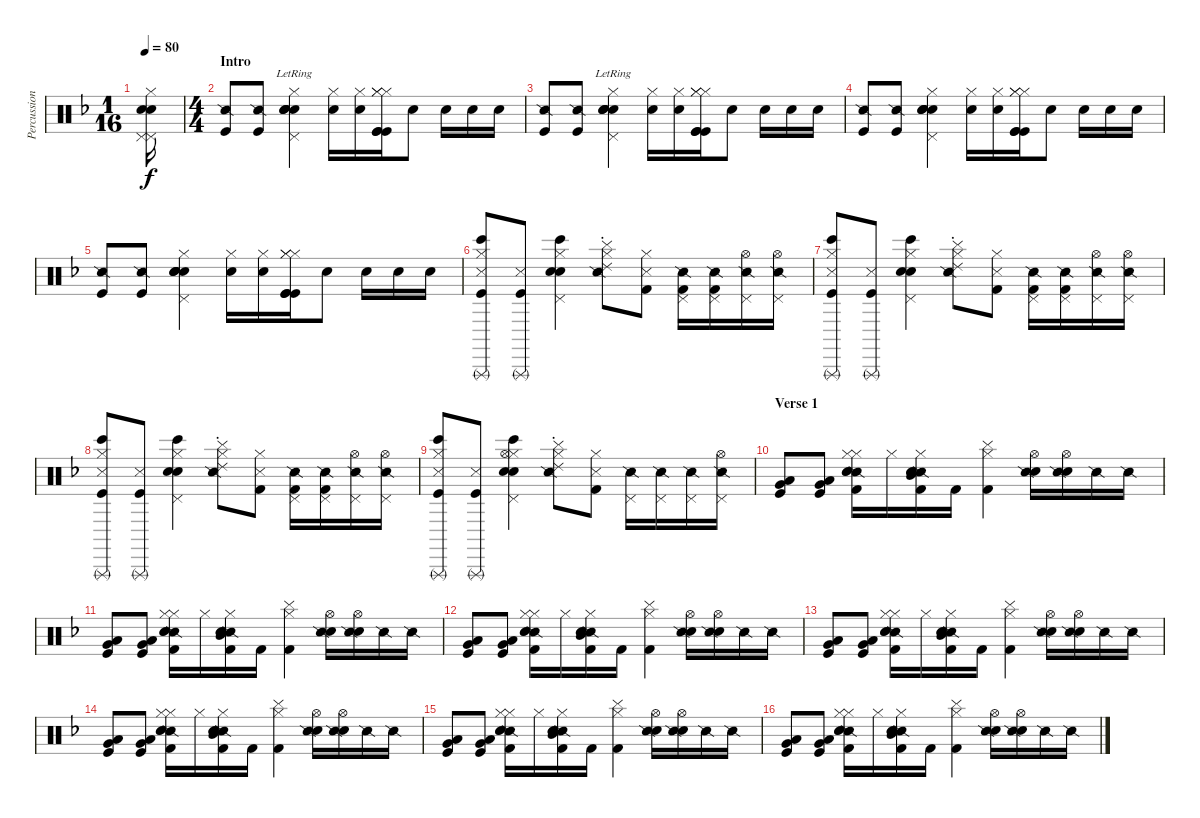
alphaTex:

\track ("Percussion" "Percussion") {instrument percussion}
\staff {score}
\articulation defaults
\ts (1 16)
\tempo 80
\clef neutral
\ks dminor
("Hi-Hat (closed)" "Pedal Hi-Hat (hit)" "Pedal Hi-Hat (hit)" "Hand Clap (hit)" "Hand Clap (hit)").16{dy f} |
\ts (4 4)
\section ("" "Intro")
("Kick (hit)" "Snare (side stick) 2").8 ("Kick (hit)" "Snare (side stick) 2").8 ("Snare (hit) 2"{lr} "Snare (hit) 2"{lr} "Pedal Hi-Hat (hit)"{lr} "Hi-Hat (closed)"{lr} "Electric Snare (hit)"{lr} "Hand Clap (hit)"{lr}).4 ("Hi-Hat (closed)" "Electric Snare (hit)").16 ("Hi-Hat (closed)" "Electric Snare (hit)").16 ("Hi-Hat (closed)" "Hi-Hat (closed)" "Hi-Hat (closed)" "Kick (hit)" "Kick (hit)" "Kick (hit)").16 "Hand Clap (hit)".8 "Snare (hit) 2".16 "Snare (hit) 2".16 "Snare (hit) 2".16 |
("Kick (hit)" "Snare (side stick) 2").8 ("Kick (hit)" "Snare (side stick) 2").8 ("Snare (hit) 2"{lr} "Snare (hit) 2"{lr} "Pedal Hi-Hat (hit)"{lr} "Hi-Hat (closed)"{lr} "Electric Snare (hit)"{lr} "Hand Clap (hit)"{lr}).4 ("Hi-Hat (closed)" "Electric Snare (hit)").16 ("Hi-Hat (closed)" "Electric Snare (hit)").16 ("Hi-Hat (closed)" "Hi-Hat (closed)" "Hi-Hat (closed)" "Kick (hit)" "Kick (hit)" "Kick (hit)").16 "Hand Clap (hit)".8 "Snare (hit) 2".16 "Snare (hit) 2".16 "Snare (hit) 2".16 |
("Kick (hit)" "Snare (side stick) 2").8 ("Kick (hit)" "Snare (side stick) 2").8 ("Snare (hit) 2" "Snare (hit) 2" "Pedal Hi-Hat (hit)" "Hi-Hat (closed)" "Electric Snare (hit)" "Hand Clap (hit)").4 ("Hi-Hat (closed)" "Electric Snare (hit)").16 ("Hi-Hat (closed)" "Electric Snare (hit)").16 ("Hi-Hat (closed)" "Hi-Hat (closed)" "Hi-Hat (closed)" "Kick (hit)" "Kick (hit)" "Kick (hit)").16 "Hand Clap (hit)".8 "Snare (hit) 2".16 "Snare (hit) 2".16 "Snare (hit) 2".16 |
("Kick (hit)" "Snare (side stick) 2").8 ("Kick (hit)" "Snare (side stick) 2").8 ("Snare (hit) 2" "Snare (hit) 2" "Pedal Hi-Hat (hit)" "Hi-Hat (closed)" "Electric Snare (hit)" "Hand Clap (hit)").4 ("Hi-Hat (closed)" "Electric Snare (hit)").16 ("Hi-Hat (closed)" "Electric Snare (hit)").16 ("Hi-Hat (closed)" "Hi-Hat (closed)" "Hi-Hat (closed)" "Kick (hit)" "Kick (hit)" "Kick (hit)").16 "Hand Clap (hit)".8 "Snare (hit) 2".16 "Snare (hit) 2".16 "Snare (hit) 2".16 |
("Kick (hit)" "Snare (side stick) 3" "Triangle (rnute)" "Hi-Hat (closed)" "Bongo High (hit)").8 ("Kick (hit)" "Snare (side stick) 3" "Triangle (rnute)").8 ("Snare (hit) 2" "Electric Snare (hit)" "Hi-Hat (closed)" "Pedal Hi-Hat (hit)" "Bongo High (hit)").4 ("Hi-Hat (closed)" "Ride (choke) 2" "Cymbal (hit)" "Snare (side stick) 2").8 ("Snare (side stick) 3" "Hi-Hat (closed)" "Kick (hit) 2").8 ("Kick (hit) 2" "Pedal Hi-Hat (hit)" "Snare (side stick) 2").16 ("Kick (hit) 2" "Pedal Hi-Hat (hit)" "Snare (side stick) 2").16 ("Hi-Hat (open)" "Pedal Hi-Hat (hit)" "Snare (side stick) 2").16 ("Hi-Hat (open)" "Pedal Hi-Hat (hit)" "Snare (side stick) 2").16 |
("Kick (hit)" "Snare (side stick) 3" "Triangle (rnute)" "Hi-Hat (closed)" "Bongo High (hit)").8 ("Kick (hit)" "Snare (side stick) 3" "Triangle (rnute)").8 ("Snare (hit) 2" "Electric Snare (hit)" "Hi-Hat (closed)" "Pedal Hi-Hat (hit)" "Bongo High (hit)").4 ("Hi-Hat (closed)" "Ride (choke) 2" "Cymbal (hit)" "Snare (side stick) 2").8 ("Snare (side stick) 3" "Hi-Hat (closed)" "Kick (hit) 2").8 ("Kick (hit) 2" "Pedal Hi-Hat (hit)" "Snare (side stick) 2").16 ("Kick (hit) 2" "Pedal Hi-Hat (hit)" "Snare (side stick) 2").16 ("Hi-Hat (open)" "Pedal Hi-Hat (hit)" "Snare (side stick) 2").16 ("Hi-Hat (open)" "Pedal Hi-Hat (hit)" "Snare (side stick) 2").16 |
("Kick (hit)" "Snare (side stick) 3" "Triangle (rnute)" "Hi-Hat (closed)" "Bongo High (hit)").8 ("Kick (hit)" "Snare (side stick) 3" "Triangle (rnute)").8 ("Snare (hit) 2" "Electric Snare (hit)" "Hi-Hat (closed)" "Pedal Hi-Hat (hit)" "Bongo High (hit)").4 ("Hi-Hat (closed)" "Ride (choke) 2" "Cymbal (hit)" "Snare (side stick) 2").8 ("Snare (side stick) 3" "Hi-Hat (closed)" "Kick (hit) 2").8 ("Kick (hit) 2" "Pedal Hi-Hat (hit)" "Snare (side stick) 2").16 ("Kick (hit) 2" "Pedal Hi-Hat (hit)" "Snare (side stick) 2").16 ("Hi-Hat (open)" "Pedal Hi-Hat (hit)" "Snare (side stick) 2").16 ("Hi-Hat (open)" "Pedal Hi-Hat (hit)" "Snare (side stick) 2").16 |
("Kick (hit)" "Snare (side stick) 3" "Triangle (rnute)" "Hi-Hat (closed)" "Bongo High (hit)").8 ("Kick (hit)" "Snare (side stick) 3" "Triangle (rnute)").8 ("Snare (hit) 2" "Electric Snare (hit)" "Hi-Hat (closed)" "Pedal Hi-Hat (hit)" "Bongo High (hit)" "Hi-Hat (open)").4 ("Hi-Hat (closed)" "Ride (choke) 2" "Cymbal (hit)" "Snare (side stick) 2").8 ("Snare (side stick) 3" "Hi-Hat (closed)" "Kick (hit) 2").8 ("Pedal Hi-Hat (hit)" "Snare (side stick) 2").16 ("Pedal Hi-Hat (hit)" "Snare (side stick) 2").16 ("Pedal Hi-Hat (hit)" "Snare (side stick) 2").16 ("Pedal Hi-Hat (hit)" "Snare (side stick) 2" "Hi-Hat (open)").16 |
\section ("" "Verse 1")
("Kick (hit)" "Low Floor Tom (hit)" "Very Low Tom (hit)").8 ("Kick (hit)" "Low Floor Tom (hit)" "Very Low Tom (hit)").8 ("Kick (hit) 2" "Hi-Hat (closed)" "Snare (side stick) 2" "Snare (hit) 2" "Electric Snare (hit)" "Hi-Hat (closed)").16 "Hi-Hat (closed)".16 ("Kick (hit) 2" "Hi-Hat (closed)" "Snare (side stick) 2" "Snare (hit) 2" "Electric Snare (hit)" "Mid Tom (hit)").16 "Kick (hit) 2".16 ("Kick (hit) 2" "Hi-Hat (closed)" "Cymbal (hit)").4 ("Electric Snare (hit)" "Hi-Hat (open)" "Snare (side stick) 2").16 ("Electric Snare (hit)" "Hi-Hat (open)" "Snare (side stick) 2").16 "Snare (side stick) 2".16 "Snare (side stick) 2".16 |
("Kick (hit)" "Low Floor Tom (hit)" "Very Low Tom (hit)").8 ("Kick (hit)" "Low Floor Tom (hit)" "Very Low Tom (hit)").8 ("Kick (hit) 2" "Hi-Hat (closed)" "Snare (side stick) 2" "Snare (hit) 2" "Electric Snare (hit)" "Hi-Hat (closed)").16 "Hi-Hat (closed)".16 ("Kick (hit) 2" "Hi-Hat (closed)" "Snare (side stick) 2" "Snare (hit) 2" "Electric Snare (hit)" "Mid Tom (hit)").16 "Kick (hit) 2".16 ("Kick (hit) 2" "Hi-Hat (closed)" "Cymbal (hit)").4 ("Electric Snare (hit)" "Hi-Hat (open)" "Snare (side stick) 2").16 ("Electric Snare (hit)" "Hi-Hat (open)" "Snare (side stick) 2").16 "Snare (side stick) 2".16 "Snare (side stick) 2".16 |
("Kick (hit)" "Low Floor Tom (hit)" "Very Low Tom (hit)").8 ("Kick (hit)" "Low Floor Tom (hit)" "Very Low Tom (hit)").8 ("Kick (hit) 2" "Hi-Hat (closed)" "Snare (side stick) 2" "Snare (hit) 2" "Electric Snare (hit)" "Hi-Hat (closed)").16 "Hi-Hat (closed)".16 ("Kick (hit) 2" "Hi-Hat (closed)" "Snare (side stick) 2" "Snare (hit) 2" "Electric Snare (hit)" "Mid Tom (hit)").16 "Kick (hit) 2".16 ("Kick (hit) 2" "Hi-Hat (closed)" "Cymbal (hit)").4 ("Electric Snare (hit)" "Hi-Hat (open)" "Snare (side stick) 2").16 ("Electric Snare (hit)" "Hi-Hat (open)" "Snare (side stick) 2").16 "Snare (side stick) 2".16 "Snare (side stick) 2".16 |
("Kick (hit)" "Low Floor Tom (hit)" "Very Low Tom (hit)").8 ("Kick (hit)" "Low Floor Tom (hit)" "Very Low Tom (hit)").8 ("Kick (hit) 2" "Hi-Hat (closed)" "Snare (side stick) 2" "Snare (hit) 2" "Electric Snare (hit)" "Hi-Hat (closed)").16 "Hi-Hat (closed)".16 ("Kick (hit) 2" "Hi-Hat (closed)" "Snare (side stick) 2" "Snare (hit) 2" "Electric Snare (hit)" "Mid Tom (hit)").16 "Kick (hit) 2".16 ("Kick (hit) 2" "Hi-Hat (closed)" "Cymbal (hit)").4 ("Electric Snare (hit)" "Hi-Hat (open)" "Snare (side stick) 2").16 ("Electric Snare (hit)" "Hi-Hat (open)" "Snare (side stick) 2").16 "Snare (side stick) 2".16 "Snare (side stick) 2".16 |
("Kick (hit)" "Low Floor Tom (hit)" "Very Low Tom (hit)").8 ("Kick (hit)" "Low Floor Tom (hit)" "Very Low Tom (hit)").8 ("Kick (hit) 2" "Hi-Hat (closed)" "Snare (side stick) 2" "Snare (hit) 2" "Electric Snare (hit)" "Hi-Hat (closed)").16 "Hi-Hat (closed)".16 ("Kick (hit) 2" "Hi-Hat (closed)" "Snare (side stick) 2" "Snare (hit) 2" "Electric Snare (hit)" "Mid Tom (hit)").16 "Kick (hit) 2".16 ("Kick (hit) 2" "Hi-Hat (closed)" "Cymbal (hit)").4 ("Electric Snare (hit)" "Hi-Hat (open)" "Snare (side stick) 2").16 ("Electric Snare (hit)" "Hi-Hat (open)" "Snare (side stick) 2").16 "Snare (side stick) 2".16 "Snare (side stick) 2".16 |
("Kick (hit)" "Low Floor Tom (hit)" "Very Low Tom (hit)").8 ("Kick (hit)" "Low Floor Tom (hit)" "Very Low Tom (hit)").8 ("Kick (hit) 2" "Hi-Hat (closed)" "Snare (side stick) 2" "Snare (hit) 2" "Electric Snare (hit)" "Hi-Hat (closed)").16 "Hi-Hat (closed)".16 ("Kick (hit) 2" "Hi-Hat (closed)" "Snare (side stick) 2" "Snare (hit) 2" "Electric Snare (hit)" "Mid Tom (hit)").16 "Kick (hit) 2".16 ("Kick (hit) 2" "Hi-Hat (closed)" "Cymbal (hit)").4 ("Electric Snare (hit)" "Hi-Hat (open)" "Snare (side stick) 2").16 ("Electric Snare (hit)" "Hi-Hat (open)" "Snare (side stick) 2").16 "Snare (side stick) 2".16 "Snare (side stick) 2".16 |
("Kick (hit)" "Low Floor Tom (hit)" "Very Low Tom (hit)").8 ("Kick (hit)" "Low Floor Tom (hit)" "Very Low Tom (hit)").8 ("Kick (hit) 2" "Hi-Hat (closed)" "Snare (side stick) 2" "Snare (hit) 2" "Electric Snare (hit)" "Hi-Hat (closed)").16 "Hi-Hat (closed)".16 ("Kick (hit) 2" "Hi-Hat (closed)" "Snare (side stick) 2" "Snare (hit) 2" "Electric Snare (hit)" "Mid Tom (hit)").16 "Kick (hit) 2".16 ("Kick (hit) 2" "Hi-Hat (closed)" "Cymbal (hit)").4 ("Electric Snare (hit)" "Hi-Hat (open)" "Snare (side stick) 2").16 ("Electric Snare (hit)" "Hi-Hat (open)" "Snare (side stick) 2").16 "Snare (side stick) 2".16 "Snare (side stick) 2".16
